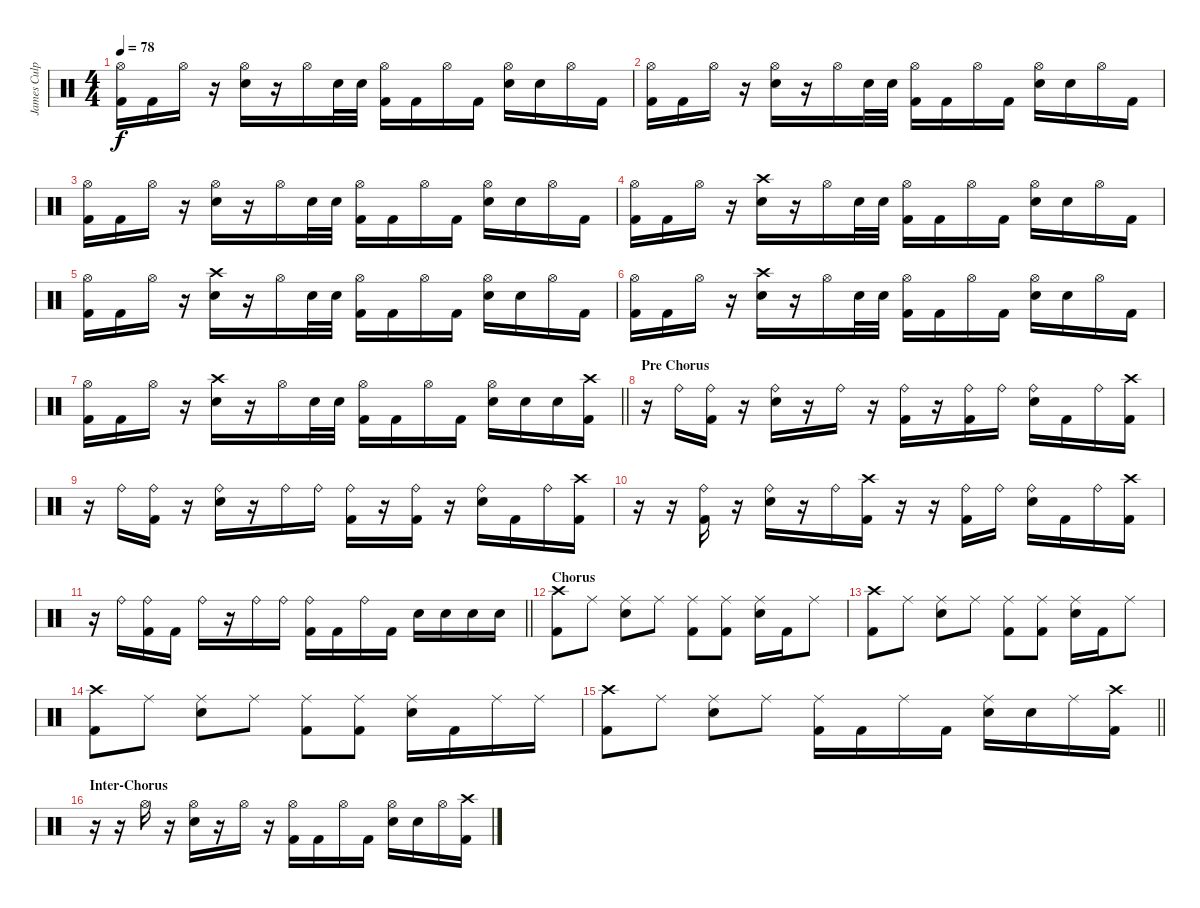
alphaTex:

\track ("James Culpepper" "James Culp") {instrument percussion}
\staff {score}
\articulation defaults
\ts (4 4)
\tempo 78
\clef neutral
\ks c
("Hi-Hat (open)" "Kick (hit) 2").16{dy f} "Kick (hit) 2".16 "Hi-Hat (open)".16 r.16 ("Hi-Hat (open)" "Snare (hit) 2").16 r.16 "Hi-Hat (open)".16 "Snare (hit) 2".32 "Snare (hit) 2".32 ("Hi-Hat (open)" "Kick (hit) 2").16 "Kick (hit) 2".16 "Hi-Hat (open)".16 "Kick (hit) 2".16 ("Hi-Hat (open)" "Snare (hit) 2").16 "Snare (hit) 2".16 "Hi-Hat (open)".16 "Kick (hit) 2".16 |
("Hi-Hat (open)" "Kick (hit) 2").16 "Kick (hit) 2".16 "Hi-Hat (open)".16 r.16 ("Hi-Hat (open)" "Snare (hit) 2").16 r.16 "Hi-Hat (open)".16 "Snare (hit) 2".32 "Snare (hit) 2".32 ("Hi-Hat (open)" "Kick (hit) 2").16 "Kick (hit) 2".16 "Hi-Hat (open)".16 "Kick (hit) 2".16 ("Hi-Hat (open)" "Snare (hit) 2").16 "Snare (hit) 2".16 "Hi-Hat (open)".16 "Kick (hit) 2".16 |
("Hi-Hat (open)" "Kick (hit) 2").16 "Kick (hit) 2".16 "Hi-Hat (open)".16 r.16 ("Hi-Hat (open)" "Snare (hit) 2").16 r.16 "Hi-Hat (open)".16 "Snare (hit) 2".32 "Snare (hit) 2".32 ("Hi-Hat (open)" "Kick (hit) 2").16 "Kick (hit) 2".16 "Hi-Hat (open)".16 "Kick (hit) 2".16 ("Hi-Hat (open)" "Snare (hit) 2").16 "Snare (hit) 2".16 "Hi-Hat (open)".16 "Kick (hit) 2".16 |
("Hi-Hat (open)" "Kick (hit) 2").16 "Kick (hit) 2".16 "Hi-Hat (open)".16 r.16 ("Crash high (hit)" "Snare (hit) 2").16 r.16 "Hi-Hat (open)".16 "Snare (hit) 2".32 "Snare (hit) 2".32 ("Hi-Hat (open)" "Kick (hit) 2").16 "Kick (hit) 2".16 "Hi-Hat (open)".16 "Kick (hit) 2".16 ("Hi-Hat (open)" "Snare (hit) 2").16 "Snare (hit) 2".16 "Hi-Hat (open)".16 "Kick (hit) 2".16 |
("Hi-Hat (open)" "Kick (hit) 2").16 "Kick (hit) 2".16 "Hi-Hat (open)".16 r.16 ("Crash high (hit)" "Snare (hit) 2").16 r.16 "Hi-Hat (open)".16 "Snare (hit) 2".32 "Snare (hit) 2".32 ("Hi-Hat (open)" "Kick (hit) 2").16 "Kick (hit) 2".16 "Hi-Hat (open)".16 "Kick (hit) 2".16 ("Hi-Hat (open)" "Snare (hit) 2").16 "Snare (hit) 2".16 "Hi-Hat (open)".16 "Kick (hit) 2".16 |
("Hi-Hat (open)" "Kick (hit) 2").16 "Kick (hit) 2".16 "Hi-Hat (open)".16 r.16 ("Crash high (hit)" "Snare (hit) 2").16 r.16 "Hi-Hat (open)".16 "Snare (hit) 2".32 "Snare (hit) 2".32 ("Hi-Hat (open)" "Kick (hit) 2").16 "Kick (hit) 2".16 "Hi-Hat (open)".16 "Kick (hit) 2".16 ("Hi-Hat (open)" "Snare (hit) 2").16 "Snare (hit) 2".16 "Hi-Hat (open)".16 "Kick (hit) 2".16 |
\barLineRight lightlight
("Hi-Hat (open)" "Kick (hit) 2").16 "Kick (hit) 2".16 "Hi-Hat (open)".16 r.16 ("Crash high (hit)" "Snare (hit) 2").16 r.16 "Hi-Hat (open)".16 "Snare (hit) 2".32 "Snare (hit) 2".32 ("Hi-Hat (open)" "Kick (hit) 2").16 "Kick (hit) 2".16 "Hi-Hat (open)".16 "Kick (hit) 2".16 ("Hi-Hat (open)" "Snare (hit) 2").16 "Snare (hit) 2".16 "Snare (hit) 2".16 ("Crash high (hit)" "Kick (hit) 2").16 |
\section ("" "Pre Chorus")
r.16 "Ride (bell)".16 ("Ride (bell)" "Kick (hit) 2").16 r.16 ("Ride (bell)" "Snare (hit) 2").16 r.16 "Ride (bell)".16 r.16 ("Ride (bell)" "Kick (hit) 2").16 r.16 ("Ride (bell)" "Kick (hit) 2").16 "Ride (bell)".16 ("Ride (bell)" "Snare (hit) 2").16 "Kick (hit) 2".16 "Ride (bell)".16 ("Crash high (hit)" "Kick (hit) 2").16 |
r.16 "Ride (bell)".16 ("Ride (bell)" "Kick (hit) 2").16 r.16 ("Ride (bell)" "Snare (hit) 2").16 r.16 "Ride (bell)".16 "Ride (bell)".16 ("Ride (bell)" "Kick (hit) 2").16 r.16 ("Ride (bell)" "Kick (hit) 2").16 r.16 ("Ride (bell)" "Snare (hit) 2").16 "Kick (hit) 2".16 "Ride (bell)".16 ("Crash high (hit)" "Kick (hit) 2").16 |
r.16 r.16 ("Ride (bell)" "Kick (hit) 2").16 r.16 ("Ride (bell)" "Snare (hit) 2").16 r.16 "Ride (bell)".16 ("Crash high (hit)" "Kick (hit) 2").16 r.16 r.16 ("Ride (bell)" "Kick (hit) 2").16 "Ride (bell)".16 ("Ride (bell)" "Snare (hit) 2").16 "Kick (hit) 2".16 "Ride (bell)".16 ("Crash high (hit)" "Kick (hit) 2").16 |
\barLineRight lightlight
r.16 "Ride (bell)".16 ("Ride (bell)" "Kick (hit) 2").16 "Kick (hit) 2".16 "Ride (bell)".16 r.16 "Ride (bell)".16 "Ride (bell)".16 ("Ride (bell)" "Kick (hit) 2").16 "Kick (hit) 2".16 "Ride (bell)".16 "Kick (hit) 2".16 "Snare (hit) 2".16 "Snare (hit) 2".16 "Snare (hit) 2".16 "Snare (hit) 2".16 |
\section ("" "Chorus")
("Crash high (hit)" "Kick (hit) 2").8 "Ride (middle)".8 ("Ride (middle)" "Snare (hit) 2").8 "Ride (middle)".8 ("Ride (middle)" "Kick (hit) 2").8 ("Ride (middle)" "Kick (hit) 2").8 ("Ride (middle)" "Snare (hit) 2").16 "Kick (hit) 2".16 "Ride (middle)".8 |
("Crash high (hit)" "Kick (hit) 2").8 "Ride (middle)".8 ("Ride (middle)" "Snare (hit) 2").8 "Ride (middle)".8 ("Ride (middle)" "Kick (hit) 2").8 ("Ride (middle)" "Kick (hit) 2").8 ("Ride (middle)" "Snare (hit) 2").16 "Kick (hit) 2".16 "Ride (middle)".8 |
("Crash high (hit)" "Kick (hit) 2").8 "Ride (middle)".8 ("Ride (middle)" "Snare (hit) 2").8 "Ride (middle)".8 ("Ride (middle)" "Kick (hit) 2").8 ("Ride (middle)" "Kick (hit) 2").8 ("Ride (middle)" "Snare (hit) 2").16 "Kick (hit) 2".16 "Ride (middle)".16 "Ride (middle)".16 |
\barLineRight lightlight
("Crash high (hit)" "Kick (hit) 2").8 "Ride (middle)".8 ("Ride (middle)" "Snare (hit) 2").8 "Ride (middle)".8 ("Ride (middle)" "Kick (hit) 2").16 "Kick (hit) 2".16 "Ride (middle)".16 "Kick (hit) 2".16 ("Ride (middle)" "Snare (hit) 2").16 "Snare (hit) 2".16 "Ride (middle)".16 ("Crash high (hit)" "Kick (hit) 2").16 |
\section ("" "Inter-Chorus")
r.16 r.16 "Hi-Hat (open)".16 r.16 ("Hi-Hat (open)" "Snare (hit) 2").16 r.16 "Hi-Hat (open)".16 r.16 ("Hi-Hat (open)" "Kick (hit) 2").16 "Kick (hit) 2".16 "Hi-Hat (open)".16 "Kick (hit) 2".16 ("Hi-Hat (open)" "Snare (hit) 2").16 "Snare (hit) 2".16 "Hi-Hat (open)".16 ("Crash high (hit)" "Kick (hit) 2").16
